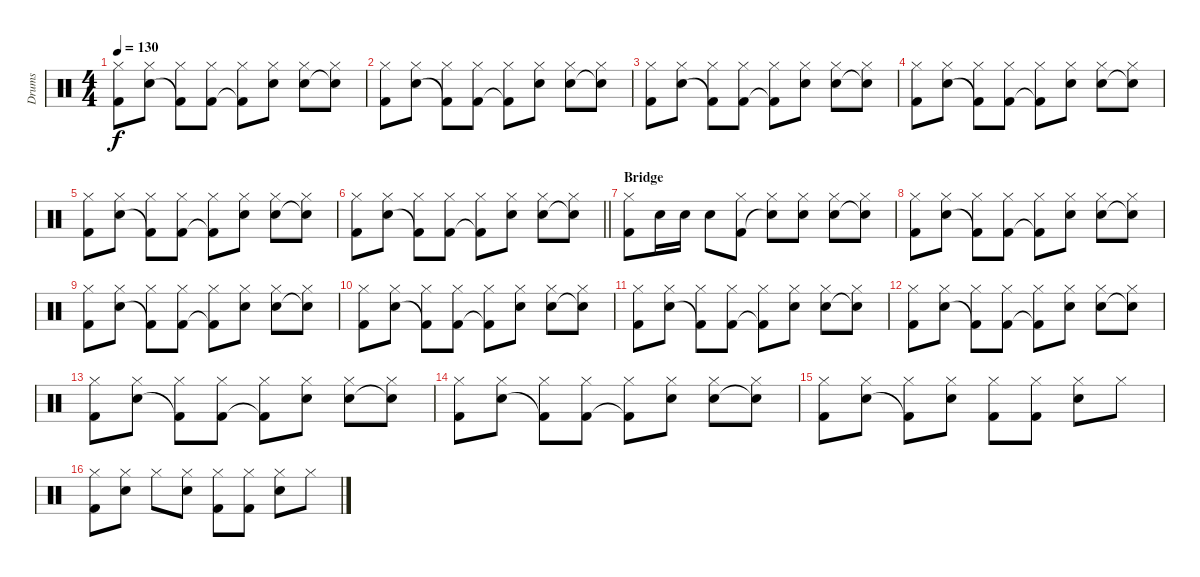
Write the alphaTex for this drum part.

\track ("Drums" "Drums") {instrument percussion}
\staff {score}
\articulation defaults
\ts (4 4)
\tempo 130
\clef neutral
\ks c
("Kick (hit) 2" "Hi-Hat (closed)").8{dy f} ("Snare (hit) 2" "Hi-Hat (closed)").8 ("Kick (hit) 2"{t} "Hi-Hat (closed)").8 ("Kick (hit) 2" "Hi-Hat (closed)").8 ("Kick (hit) 2"{t} "Hi-Hat (closed)").8 ("Snare (hit) 2" "Hi-Hat (closed)").8 ("Snare (hit) 2" "Hi-Hat (closed)").8 ("Snare (hit) 2"{t} "Hi-Hat (closed)").8 |
("Kick (hit) 2" "Hi-Hat (closed)").8 ("Snare (hit) 2" "Hi-Hat (closed)").8 ("Kick (hit) 2"{t} "Hi-Hat (closed)").8 ("Kick (hit) 2" "Hi-Hat (closed)").8 ("Kick (hit) 2"{t} "Hi-Hat (closed)").8 ("Snare (hit) 2" "Hi-Hat (closed)").8 ("Snare (hit) 2" "Hi-Hat (closed)").8 ("Snare (hit) 2"{t} "Hi-Hat (closed)").8 |
("Kick (hit) 2" "Hi-Hat (closed)").8 ("Snare (hit) 2" "Hi-Hat (closed)").8 ("Kick (hit) 2"{t} "Hi-Hat (closed)").8 ("Kick (hit) 2" "Hi-Hat (closed)").8 ("Kick (hit) 2"{t} "Hi-Hat (closed)").8 ("Snare (hit) 2" "Hi-Hat (closed)").8 ("Snare (hit) 2" "Hi-Hat (closed)").8 ("Snare (hit) 2"{t} "Hi-Hat (closed)").8 |
("Kick (hit) 2" "Hi-Hat (closed)").8 ("Snare (hit) 2" "Hi-Hat (closed)").8 ("Kick (hit) 2"{t} "Hi-Hat (closed)").8 ("Kick (hit) 2" "Hi-Hat (closed)").8 ("Kick (hit) 2"{t} "Hi-Hat (closed)").8 ("Snare (hit) 2" "Hi-Hat (closed)").8 ("Snare (hit) 2" "Hi-Hat (closed)").8 ("Snare (hit) 2"{t} "Hi-Hat (closed)").8 |
("Kick (hit) 2" "Hi-Hat (closed)").8 ("Snare (hit) 2" "Hi-Hat (closed)").8 ("Kick (hit) 2"{t} "Hi-Hat (closed)").8 ("Kick (hit) 2" "Hi-Hat (closed)").8 ("Kick (hit) 2"{t} "Hi-Hat (closed)").8 ("Snare (hit) 2" "Hi-Hat (closed)").8 ("Snare (hit) 2" "Hi-Hat (closed)").8 ("Snare (hit) 2"{t} "Hi-Hat (closed)").8 |
\barLineRight lightlight
("Kick (hit) 2" "Hi-Hat (closed)").8 ("Snare (hit) 2" "Hi-Hat (closed)").8 ("Kick (hit) 2"{t} "Hi-Hat (closed)").8 ("Kick (hit) 2" "Hi-Hat (closed)").8 ("Kick (hit) 2"{t} "Hi-Hat (closed)").8 ("Snare (hit) 2" "Hi-Hat (closed)").8 ("Snare (hit) 2" "Hi-Hat (closed)").8 ("Snare (hit) 2"{t} "Hi-Hat (closed)").8 |
\section ("" "Bridge")
("Kick (hit) 2" "Hi-Hat (closed)").8 "Snare (hit) 2".16 "Snare (hit) 2".16 "Snare (hit) 2".8 ("Kick (hit) 2" "Hi-Hat (closed)").8 ("Snare (hit)"{t} "Hi-Hat (closed)").8 ("Snare (hit) 2" "Hi-Hat (closed)").8 ("Snare (hit) 2" "Hi-Hat (closed)").8 ("Snare (hit)"{t} "Hi-Hat (closed)").8 |
("Kick (hit) 2" "Hi-Hat (closed)").8 ("Snare (hit) 2" "Hi-Hat (closed)").8 ("Kick (hit) 2"{t} "Hi-Hat (closed)").8 ("Kick (hit) 2" "Hi-Hat (closed)").8 ("Kick (hit) 2"{t} "Hi-Hat (closed)").8 ("Snare (hit) 2" "Hi-Hat (closed)").8 ("Snare (hit) 2" "Hi-Hat (closed)").8 ("Snare (hit) 2"{t} "Hi-Hat (closed)").8 |
("Kick (hit) 2" "Hi-Hat (closed)").8 ("Snare (hit) 2" "Hi-Hat (closed)").8 ("Kick (hit) 2"{t} "Hi-Hat (closed)").8 ("Kick (hit) 2" "Hi-Hat (closed)").8 ("Kick (hit) 2"{t} "Hi-Hat (closed)").8 ("Snare (hit) 2" "Hi-Hat (closed)").8 ("Snare (hit) 2" "Hi-Hat (closed)").8 ("Snare (hit) 2"{t} "Hi-Hat (closed)").8 |
("Kick (hit) 2" "Hi-Hat (closed)").8 ("Snare (hit) 2" "Hi-Hat (closed)").8 ("Kick (hit) 2"{t} "Hi-Hat (closed)").8 ("Kick (hit) 2" "Hi-Hat (closed)").8 ("Kick (hit) 2"{t} "Hi-Hat (closed)").8 ("Snare (hit) 2" "Hi-Hat (closed)").8 ("Snare (hit) 2" "Hi-Hat (closed)").8 ("Snare (hit) 2"{t} "Hi-Hat (closed)").8 |
("Kick (hit) 2" "Hi-Hat (closed)").8 ("Snare (hit) 2" "Hi-Hat (closed)").8 ("Kick (hit) 2"{t} "Hi-Hat (closed)").8 ("Kick (hit) 2" "Hi-Hat (closed)").8 ("Kick (hit) 2"{t} "Hi-Hat (closed)").8 ("Snare (hit) 2" "Hi-Hat (closed)").8 ("Snare (hit) 2" "Hi-Hat (closed)").8 ("Snare (hit) 2"{t} "Hi-Hat (closed)").8 |
("Kick (hit) 2" "Hi-Hat (closed)").8 ("Snare (hit) 2" "Hi-Hat (closed)").8 ("Kick (hit) 2"{t} "Hi-Hat (closed)").8 ("Kick (hit) 2" "Hi-Hat (closed)").8 ("Kick (hit) 2"{t} "Hi-Hat (closed)").8 ("Snare (hit) 2" "Hi-Hat (closed)").8 ("Snare (hit) 2" "Hi-Hat (closed)").8 ("Snare (hit) 2"{t} "Hi-Hat (closed)").8 |
("Kick (hit) 2" "Hi-Hat (closed)").8 ("Snare (hit) 2" "Hi-Hat (closed)").8 ("Kick (hit) 2"{t} "Hi-Hat (closed)").8 ("Kick (hit) 2" "Hi-Hat (closed)").8 ("Kick (hit) 2"{t} "Hi-Hat (closed)").8 ("Snare (hit) 2" "Hi-Hat (closed)").8 ("Snare (hit) 2" "Hi-Hat (closed)").8 ("Snare (hit) 2"{t} "Hi-Hat (closed)").8 |
("Kick (hit) 2" "Hi-Hat (closed)").8 ("Snare (hit) 2" "Hi-Hat (closed)").8 ("Kick (hit) 2"{t} "Hi-Hat (closed)").8 ("Kick (hit) 2" "Hi-Hat (closed)").8 ("Kick (hit) 2"{t} "Hi-Hat (closed)").8 ("Snare (hit) 2" "Hi-Hat (closed)").8 ("Snare (hit) 2" "Hi-Hat (closed)").8 ("Snare (hit) 2"{t} "Hi-Hat (closed)").8 |
("Kick (hit) 2" "Hi-Hat (closed)").8 ("Snare (hit) 2" "Hi-Hat (closed)").8 ("Kick (hit) 2"{t} "Hi-Hat (closed)").8 ("Hi-Hat (closed)" "Snare (hit) 2").8 ("Kick (hit) 2" "Hi-Hat (closed)").8 ("Kick (hit) 2" "Hi-Hat (closed)").8 ("Hi-Hat (closed)" "Snare (hit) 2").8 "Hi-Hat (closed)".8 |
("Kick (hit) 2" "Hi-Hat (closed)").8 ("Hi-Hat (closed)" "Snare (hit) 2").8 "Hi-Hat (closed)".8 ("Hi-Hat (closed)" "Snare (hit) 2").8 ("Kick (hit) 2" "Hi-Hat (closed)").8 ("Kick (hit) 2" "Hi-Hat (closed)").8 ("Hi-Hat (closed)" "Snare (hit) 2").8 "Hi-Hat (closed)".8
